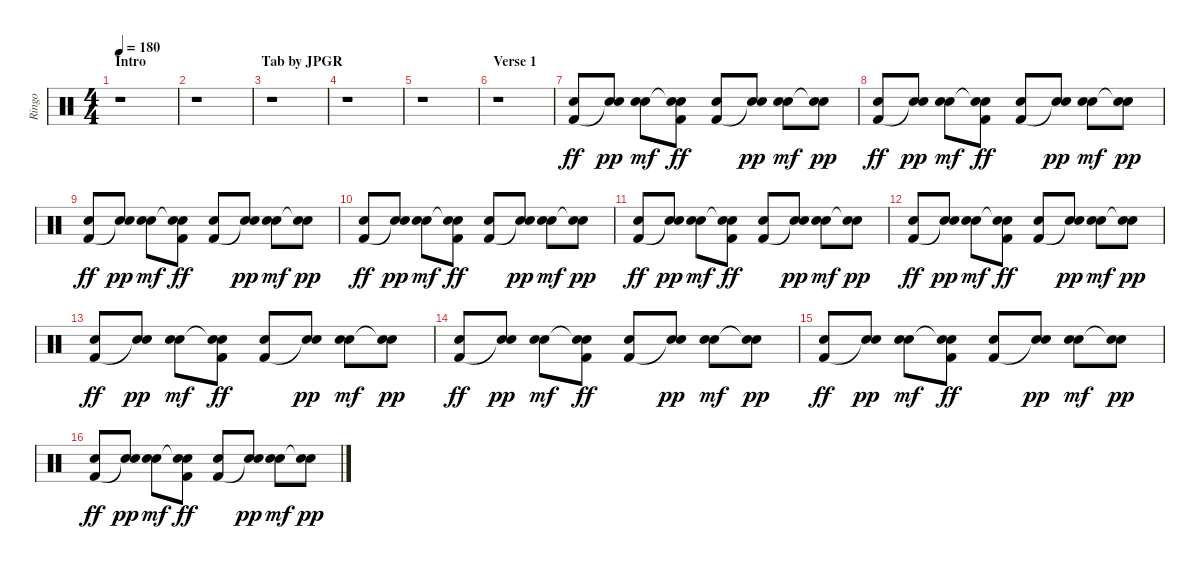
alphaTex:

\track ("Ringo" "Ringo") {instrument percussion}
\staff {score}
\articulation defaults
\ts (4 4)
\section ("" "Intro                                 Tab by JPGR")
\tempo 180
\clef neutral
\ks c
r.1{dy ff} |
r.1 |
r.1 |
r.1 |
r.1 |
\section ("" "Verse 1")
r.1 |
("Hand Clap (hit)" "Kick (hit) 2").8 ("Hand Clap (hit)" "Snare (hit)"{t}).8{dy pp} ("Hand Clap (hit)" "Snare (hit) 2").8{dy mf} ("Hand Clap (hit)" "Snare (hit)"{t} "Kick (hit) 2").8{dy ff} ("Hand Clap (hit)" "Kick (hit) 2").8 ("Hand Clap (hit)" "Snare (hit)"{t}).8{dy pp} ("Hand Clap (hit)" "Snare (hit) 2").8{dy mf} ("Hand Clap (hit)" "Snare (hit)"{t}).8{dy pp} |
("Hand Clap (hit)" "Kick (hit) 2").8{dy ff} ("Hand Clap (hit)" "Snare (hit)"{t}).8{dy pp} ("Hand Clap (hit)" "Snare (hit) 2").8{dy mf} ("Hand Clap (hit)" "Snare (hit)"{t} "Kick (hit) 2").8{dy ff} ("Hand Clap (hit)" "Kick (hit) 2").8 ("Hand Clap (hit)" "Snare (hit)"{t}).8{dy pp} ("Hand Clap (hit)" "Snare (hit) 2").8{dy mf} ("Hand Clap (hit)" "Snare (hit)"{t}).8{dy pp} |
("Hand Clap (hit)" "Kick (hit) 2").8{dy ff} ("Hand Clap (hit)" "Snare (hit)"{t}).8{dy pp} ("Hand Clap (hit)" "Snare (hit) 2").8{dy mf} ("Hand Clap (hit)" "Snare (hit)"{t} "Kick (hit) 2").8{dy ff} ("Hand Clap (hit)" "Kick (hit) 2").8 ("Hand Clap (hit)" "Snare (hit)"{t}).8{dy pp} ("Hand Clap (hit)" "Snare (hit) 2").8{dy mf} ("Hand Clap (hit)" "Snare (hit)"{t}).8{dy pp} |
("Hand Clap (hit)" "Kick (hit) 2").8{dy ff} ("Hand Clap (hit)" "Snare (hit)"{t}).8{dy pp} ("Hand Clap (hit)" "Snare (hit) 2").8{dy mf} ("Hand Clap (hit)" "Snare (hit)"{t} "Kick (hit) 2").8{dy ff} ("Hand Clap (hit)" "Kick (hit) 2").8 ("Hand Clap (hit)" "Snare (hit)"{t}).8{dy pp} ("Hand Clap (hit)" "Snare (hit) 2").8{dy mf} ("Hand Clap (hit)" "Snare (hit)"{t}).8{dy pp} |
("Hand Clap (hit)" "Kick (hit) 2").8{dy ff} ("Hand Clap (hit)" "Snare (hit)"{t}).8{dy pp} ("Hand Clap (hit)" "Snare (hit) 2").8{dy mf} ("Hand Clap (hit)" "Snare (hit)"{t} "Kick (hit) 2").8{dy ff} ("Hand Clap (hit)" "Kick (hit) 2").8 ("Hand Clap (hit)" "Snare (hit)"{t}).8{dy pp} ("Hand Clap (hit)" "Snare (hit) 2").8{dy mf} ("Hand Clap (hit)" "Snare (hit)"{t}).8{dy pp} |
("Hand Clap (hit)" "Kick (hit) 2").8{dy ff} ("Hand Clap (hit)" "Snare (hit)"{t}).8{dy pp} ("Hand Clap (hit)" "Snare (hit) 2").8{dy mf} ("Hand Clap (hit)" "Snare (hit)"{t} "Kick (hit) 2").8{dy ff} ("Hand Clap (hit)" "Kick (hit) 2").8 ("Hand Clap (hit)" "Snare (hit)"{t}).8{dy pp} ("Hand Clap (hit)" "Snare (hit) 2").8{dy mf} ("Hand Clap (hit)" "Snare (hit)"{t}).8{dy pp} |
("Hand Clap (hit)" "Kick (hit) 2").8{dy ff} ("Hand Clap (hit)" "Snare (hit)"{t}).8{dy pp} ("Hand Clap (hit)" "Snare (hit) 2").8{dy mf} ("Hand Clap (hit)" "Snare (hit)"{t} "Kick (hit) 2").8{dy ff} ("Hand Clap (hit)" "Kick (hit) 2").8 ("Hand Clap (hit)" "Snare (hit)"{t}).8{dy pp} ("Hand Clap (hit)" "Snare (hit) 2").8{dy mf} ("Hand Clap (hit)" "Snare (hit)"{t}).8{dy pp} |
("Hand Clap (hit)" "Kick (hit) 2").8{dy ff} ("Hand Clap (hit)" "Snare (hit)"{t}).8{dy pp} ("Hand Clap (hit)" "Snare (hit) 2").8{dy mf} ("Hand Clap (hit)" "Snare (hit)"{t} "Kick (hit) 2").8{dy ff} ("Hand Clap (hit)" "Kick (hit) 2").8 ("Hand Clap (hit)" "Snare (hit)"{t}).8{dy pp} ("Hand Clap (hit)" "Snare (hit) 2").8{dy mf} ("Hand Clap (hit)" "Snare (hit)"{t}).8{dy pp} |
("Hand Clap (hit)" "Kick (hit) 2").8{dy ff} ("Hand Clap (hit)" "Snare (hit)"{t}).8{dy pp} ("Hand Clap (hit)" "Snare (hit) 2").8{dy mf} ("Hand Clap (hit)" "Snare (hit)"{t} "Kick (hit) 2").8{dy ff} ("Hand Clap (hit)" "Kick (hit) 2").8 ("Hand Clap (hit)" "Snare (hit)"{t}).8{dy pp} ("Hand Clap (hit)" "Snare (hit) 2").8{dy mf} ("Hand Clap (hit)" "Snare (hit)"{t}).8{dy pp} |
("Hand Clap (hit)" "Kick (hit) 2").8{dy ff} ("Hand Clap (hit)" "Snare (hit)"{t}).8{dy pp} ("Hand Clap (hit)" "Snare (hit) 2").8{dy mf} ("Hand Clap (hit)" "Snare (hit)"{t} "Kick (hit) 2").8{dy ff} ("Hand Clap (hit)" "Kick (hit) 2").8 ("Hand Clap (hit)" "Snare (hit)"{t}).8{dy pp} ("Hand Clap (hit)" "Snare (hit) 2").8{dy mf} ("Hand Clap (hit)" "Snare (hit)"{t}).8{dy pp}
